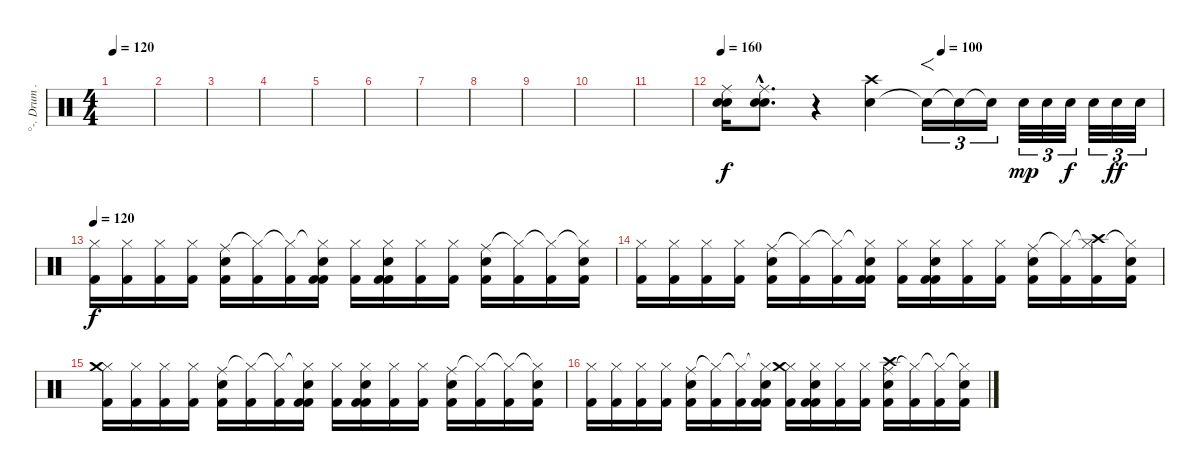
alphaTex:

\track ("°-. Drum .-°" "°-. Drum .") {instrument percussion}
\staff {score}
\articulation defaults
\ts (4 4)
\section ("" "")
\tempo 120
\clef neutral
\ks c
|
|
|
|
|
|
|
|
|
|
|
\section ("" "")
\tempo 160
\tempo (100 0.5)
("Ride (middle)" "Snare (hit) 2" "Electric Snare (hit)").16 ("Ride (middle)"{hac} "Snare (hit) 2"{hac} "Electric Snare (hit)"{hac}).8{d} r.4 ("Electric Snare (hit)" "Crash high (hit)").4 "Electric Snare (hit)"{t}.16{f tu (3 2)} "Electric Snare (hit)"{t}.16{tu (3 2)} "Electric Snare (hit)"{t}.16{tu (3 2)} "Electric Snare (hit)".32{tu (3 2) dy mp} "Electric Snare (hit)".32{tu (3 2)} "Electric Snare (hit)".32{tu (3 2) dy f} "Electric Snare (hit)".32{tu (3 2)} "Electric Snare (hit)".32{tu (3 2) dy ff} "Electric Snare (hit)".32{tu (3 2)} |
\tempo 120
("Hi-Hat (closed)" "Kick (hit) 2").16{dy f} ("Hi-Hat (closed)" "Kick (hit) 2").16 ("Hi-Hat (closed)" "Kick (hit) 2").16 ("Hi-Hat (closed)" "Kick (hit) 2").16 ("Ride (middle)" "Kick (hit) 2" "Electric Snare (hit)").16 ("Hi-Hat (closed)"{t} "Kick (hit) 2").16 ("Hi-Hat (closed)"{t} "Kick (hit) 2").16 ("Hi-Hat (closed)"{t} "Kick (hit) 2" "Kick (hit) 2" "Electric Snare (hit)").16 ("Hi-Hat (closed)" "Kick (hit) 2").16 ("Hi-Hat (closed)" "Kick (hit) 2" "Kick (hit) 2" "Electric Snare (hit)").16 ("Hi-Hat (closed)" "Kick (hit) 2").16 ("Hi-Hat (closed)" "Kick (hit) 2").16 ("Ride (middle)" "Kick (hit) 2" "Electric Snare (hit)").16 ("Hi-Hat (closed)"{t} "Kick (hit) 2").16 ("Hi-Hat (closed)"{t} "Kick (hit) 2").16 ("Hi-Hat (closed)"{t} "Kick (hit) 2" "Electric Snare (hit)").16 |
("Hi-Hat (closed)" "Kick (hit) 2").16 ("Hi-Hat (closed)" "Kick (hit) 2").16 ("Hi-Hat (closed)" "Kick (hit) 2").16 ("Hi-Hat (closed)" "Kick (hit) 2").16 ("Ride (middle)" "Kick (hit) 2" "Electric Snare (hit)").16 ("Hi-Hat (closed)"{t} "Kick (hit) 2").16 ("Hi-Hat (closed)"{t} "Kick (hit) 2").16 ("Hi-Hat (closed)"{t} "Kick (hit) 2" "Kick (hit) 2" "Electric Snare (hit)").16 ("Hi-Hat (closed)" "Kick (hit) 2").16 ("Hi-Hat (closed)" "Kick (hit) 2" "Kick (hit) 2" "Electric Snare (hit)").16 ("Hi-Hat (closed)" "Kick (hit) 2").16 ("Hi-Hat (closed)" "Kick (hit) 2").16 ("Ride (middle)" "Kick (hit) 2" "Electric Snare (hit)").16 ("Hi-Hat (closed)"{t} "Kick (hit) 2").16 ("Hi-Hat (closed)"{t} "Crash high (hit)" "Kick (hit) 2").16 ("Hi-Hat (closed)"{t} "Kick (hit) 2" "Electric Snare (hit)").16 |
("Hi-Hat (closed)" "Crash medium (hit)" "Kick (hit) 2").16 ("Hi-Hat (closed)" "Kick (hit) 2").16 ("Hi-Hat (closed)" "Kick (hit) 2").16 ("Hi-Hat (closed)" "Kick (hit) 2").16 ("Ride (middle)" "Kick (hit) 2" "Electric Snare (hit)").16 ("Hi-Hat (closed)"{t} "Kick (hit) 2").16 ("Hi-Hat (closed)"{t} "Kick (hit) 2").16 ("Hi-Hat (closed)"{t} "Kick (hit) 2" "Kick (hit) 2" "Electric Snare (hit)").16 ("Hi-Hat (closed)" "Kick (hit) 2").16 ("Hi-Hat (closed)" "Kick (hit) 2" "Kick (hit) 2" "Electric Snare (hit)").16 ("Hi-Hat (closed)" "Kick (hit) 2").16 ("Hi-Hat (closed)" "Kick (hit) 2").16 ("Ride (middle)" "Kick (hit) 2" "Electric Snare (hit)").16 ("Hi-Hat (closed)"{t} "Kick (hit) 2").16 ("Hi-Hat (closed)"{t} "Kick (hit) 2").16 ("Hi-Hat (closed)"{t} "Kick (hit) 2" "Electric Snare (hit)").16 |
("Hi-Hat (closed)" "Kick (hit) 2").16 ("Hi-Hat (closed)" "Kick (hit) 2").16 ("Hi-Hat (closed)" "Kick (hit) 2").16 ("Hi-Hat (closed)" "Kick (hit) 2").16 ("Ride (middle)" "Kick (hit) 2" "Electric Snare (hit)").16 ("Hi-Hat (closed)"{t} "Kick (hit) 2").16 ("Hi-Hat (closed)"{t} "Kick (hit) 2").16 ("Hi-Hat (closed)"{t} "Kick (hit) 2" "Kick (hit) 2" "Electric Snare (hit)").16 ("Hi-Hat (closed)" "Crash medium (hit)" "Kick (hit) 2").16 ("Hi-Hat (closed)" "Kick (hit) 2" "Kick (hit) 2" "Electric Snare (hit)").16 ("Hi-Hat (closed)" "Kick (hit) 2").16 ("Hi-Hat (closed)" "Kick (hit) 2").16 ("Ride (middle)" "Crash high (hit)" "Kick (hit) 2" "Electric Snare (hit)").16 ("Hi-Hat (closed)"{t} "Kick (hit) 2").16 ("Hi-Hat (closed)"{t} "Kick (hit) 2").16 ("Hi-Hat (closed)"{t} "Kick (hit) 2" "Electric Snare (hit)").16
